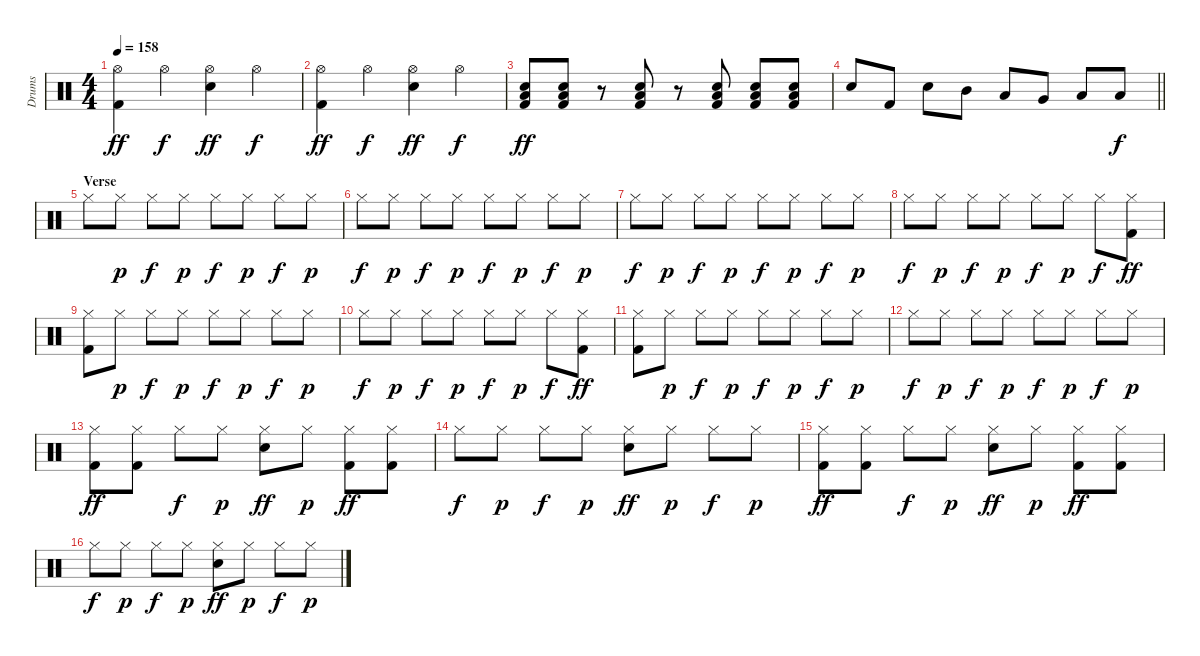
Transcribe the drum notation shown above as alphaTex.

\track ("Drums" "Drums") {instrument percussion}
\staff {score}
\articulation defaults
\ts (4 4)
\tempo 158
\clef neutral
\ks c
("Hi-Hat (open)" "Kick (hit) 2").4{dy ff} "Hi-Hat (open)".4{dy f} ("Hi-Hat (open)" "Electric Snare (hit)").4{dy ff} "Hi-Hat (open)".4{dy f} |
("Hi-Hat (open)" "Kick (hit) 2").4{dy ff} "Hi-Hat (open)".4{dy f} ("Hi-Hat (open)" "Electric Snare (hit)").4{dy ff} "Hi-Hat (open)".4{dy f} |
("Electric Snare (hit)" "Low Floor Tom (hit)" "Kick (hit) 2").8{dy ff} ("Electric Snare (hit)" "Low Floor Tom (hit)" "Kick (hit) 2").8 r.8 ("Electric Snare (hit)" "Low Floor Tom (hit)" "Kick (hit) 2").8 r.8 ("Electric Snare (hit)" "Low Floor Tom (hit)" "Kick (hit) 2").8 ("Electric Snare (hit)" "Low Floor Tom (hit)" "Kick (hit) 2").8 ("Electric Snare (hit)" "Low Floor Tom (hit)" "Kick (hit) 2").8 |
\barLineRight lightlight "Electric Snare (hit)".8 "Kick (hit) 2".8 "Electric Snare (hit)".8 "Mid Tom (hit)".8 "Low Tom (hit)".8 "Very Low Tom (hit)".8 "Low Floor Tom (hit)".8 "Low Floor Tom (hit)".8{dy f}
|
\section ("" "Verse")
"Hi-Hat (closed)".8 "Hi-Hat (closed)".8{dy p} "Hi-Hat (closed)".8{dy f} "Hi-Hat (closed)".8{dy p} "Hi-Hat (closed)".8{dy f} "Hi-Hat (closed)".8{dy p} "Hi-Hat (closed)".8{dy f} "Hi-Hat (closed)".8{dy p} |
"Hi-Hat (closed)".8{dy f} "Hi-Hat (closed)".8{dy p} "Hi-Hat (closed)".8{dy f} "Hi-Hat (closed)".8{dy p} "Hi-Hat (closed)".8{dy f} "Hi-Hat (closed)".8{dy p} "Hi-Hat (closed)".8{dy f} "Hi-Hat (closed)".8{dy p} |
"Hi-Hat (closed)".8{dy f} "Hi-Hat (closed)".8{dy p} "Hi-Hat (closed)".8{dy f} "Hi-Hat (closed)".8{dy p} "Hi-Hat (closed)".8{dy f} "Hi-Hat (closed)".8{dy p} "Hi-Hat (closed)".8{dy f} "Hi-Hat (closed)".8{dy p} |
"Hi-Hat (closed)".8{dy f} "Hi-Hat (closed)".8{dy p} "Hi-Hat (closed)".8{dy f} "Hi-Hat (closed)".8{dy p} "Hi-Hat (closed)".8{dy f} "Hi-Hat (closed)".8{dy p} "Hi-Hat (closed)".8{dy f} ("Hi-Hat (closed)" "Kick (hit) 2").8{dy ff} |
("Hi-Hat (closed)" "Kick (hit) 2").8 "Hi-Hat (closed)".8{dy p} "Hi-Hat (closed)".8{dy f} "Hi-Hat (closed)".8{dy p} "Hi-Hat (closed)".8{dy f} "Hi-Hat (closed)".8{dy p} "Hi-Hat (closed)".8{dy f} "Hi-Hat (closed)".8{dy p} |
"Hi-Hat (closed)".8{dy f} "Hi-Hat (closed)".8{dy p} "Hi-Hat (closed)".8{dy f} "Hi-Hat (closed)".8{dy p} "Hi-Hat (closed)".8{dy f} "Hi-Hat (closed)".8{dy p} "Hi-Hat (closed)".8{dy f} ("Hi-Hat (closed)" "Kick (hit) 2").8{dy ff} |
("Hi-Hat (closed)" "Kick (hit) 2").8 "Hi-Hat (closed)".8{dy p} "Hi-Hat (closed)".8{dy f} "Hi-Hat (closed)".8{dy p} "Hi-Hat (closed)".8{dy f} "Hi-Hat (closed)".8{dy p} "Hi-Hat (closed)".8{dy f} "Hi-Hat (closed)".8{dy p} |
"Hi-Hat (closed)".8{dy f} "Hi-Hat (closed)".8{dy p} "Hi-Hat (closed)".8{dy f} "Hi-Hat (closed)".8{dy p} "Hi-Hat (closed)".8{dy f} "Hi-Hat (closed)".8{dy p} "Hi-Hat (closed)".8{dy f} "Hi-Hat (closed)".8{dy p} |
("Hi-Hat (closed)" "Kick (hit) 2").8{dy ff} ("Hi-Hat (closed)" "Kick (hit) 2").8 "Hi-Hat (closed)".8{dy f} "Hi-Hat (closed)".8{dy p} ("Hi-Hat (closed)" "Electric Snare (hit)").8{dy ff} "Hi-Hat (closed)".8{dy p} ("Hi-Hat (closed)" "Kick (hit) 2").8{dy ff} ("Hi-Hat (closed)" "Kick (hit) 2").8 |
"Hi-Hat (closed)".8{dy f} "Hi-Hat (closed)".8{dy p} "Hi-Hat (closed)".8{dy f} "Hi-Hat (closed)".8{dy p} ("Hi-Hat (closed)" "Electric Snare (hit)").8{dy ff} "Hi-Hat (closed)".8{dy p} "Hi-Hat (closed)".8{dy f} "Hi-Hat (closed)".8{dy p} |
("Hi-Hat (closed)" "Kick (hit) 2").8{dy ff} ("Hi-Hat (closed)" "Kick (hit) 2").8 "Hi-Hat (closed)".8{dy f} "Hi-Hat (closed)".8{dy p} ("Hi-Hat (closed)" "Electric Snare (hit)").8{dy ff} "Hi-Hat (closed)".8{dy p} ("Hi-Hat (closed)" "Kick (hit) 2").8{dy ff} ("Hi-Hat (closed)" "Kick (hit) 2").8 |
"Hi-Hat (closed)".8{dy f} "Hi-Hat (closed)".8{dy p} "Hi-Hat (closed)".8{dy f} "Hi-Hat (closed)".8{dy p} ("Hi-Hat (closed)" "Electric Snare (hit)").8{dy ff} "Hi-Hat (closed)".8{dy p} "Hi-Hat (closed)".8{dy f} "Hi-Hat (closed)".8{dy p}
